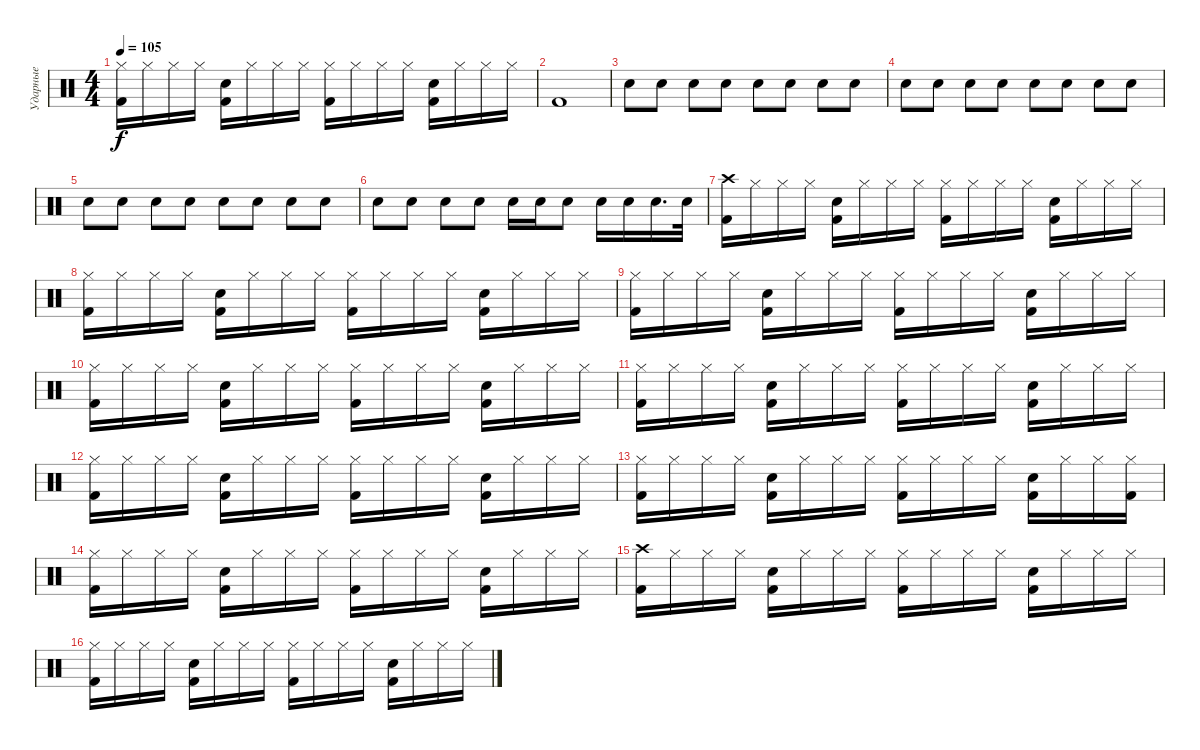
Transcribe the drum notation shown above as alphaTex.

\track ("Ударные" "Ударные") {instrument percussion}
\staff {score}
\articulation defaults
\ts (4 4)
\tempo 105
\clef neutral
\ks c
("Hi-Hat (closed)" "Kick (hit) 2").16{dy f} "Hi-Hat (closed)".16 "Hi-Hat (closed)".16 "Hi-Hat (closed)".16 ("Kick (hit) 2" "Electric Snare (hit)").16 "Hi-Hat (closed)".16 "Hi-Hat (closed)".16 "Hi-Hat (closed)".16 ("Hi-Hat (closed)" "Kick (hit) 2").16 "Hi-Hat (closed)".16 "Hi-Hat (closed)".16 "Hi-Hat (closed)".16 ("Kick (hit) 2" "Electric Snare (hit)").16 "Hi-Hat (closed)".16 "Hi-Hat (closed)".16 "Hi-Hat (closed)".16 |
"Kick (hit) 2".1 |
"Electric Snare (hit)".8{volume 7} "Electric Snare (hit)".8 "Electric Snare (hit)".8 "Electric Snare (hit)".8 "Electric Snare (hit)".8 "Electric Snare (hit)".8 "Electric Snare (hit)".8 "Electric Snare (hit)".8 |
"Electric Snare (hit)".8 "Electric Snare (hit)".8 "Electric Snare (hit)".8 "Electric Snare (hit)".8 "Electric Snare (hit)".8 "Electric Snare (hit)".8 "Electric Snare (hit)".8 "Electric Snare (hit)".8 |
"Electric Snare (hit)".8{volume 9} "Electric Snare (hit)".8 "Electric Snare (hit)".8 "Electric Snare (hit)".8 "Electric Snare (hit)".8{volume 11} "Electric Snare (hit)".8 "Electric Snare (hit)".8 "Electric Snare (hit)".8 |
"Electric Snare (hit)".8{volume 13} "Electric Snare (hit)".8 "Electric Snare (hit)".8 "Electric Snare (hit)".8 "Electric Snare (hit)".16 "Electric Snare (hit)".16 "Electric Snare (hit)".8 "Electric Snare (hit)".16 "Electric Snare (hit)".16 "Electric Snare (hit)".16{d} "Electric Snare (hit)".32 |
("Crash high (hit)" "Kick (hit) 2").16 "Hi-Hat (closed)".16 "Hi-Hat (closed)".16 "Hi-Hat (closed)".16 ("Kick (hit) 2" "Electric Snare (hit)").16 "Hi-Hat (closed)".16 "Hi-Hat (closed)".16 "Hi-Hat (closed)".16 ("Hi-Hat (closed)" "Kick (hit) 2").16 "Hi-Hat (closed)".16 "Hi-Hat (closed)".16 "Hi-Hat (closed)".16 ("Kick (hit) 2" "Electric Snare (hit)").16 "Hi-Hat (closed)".16 "Hi-Hat (closed)".16 "Hi-Hat (closed)".16 |
("Hi-Hat (closed)" "Kick (hit) 2").16 "Hi-Hat (closed)".16 "Hi-Hat (closed)".16 "Hi-Hat (closed)".16 ("Kick (hit) 2" "Electric Snare (hit)").16 "Hi-Hat (closed)".16 "Hi-Hat (closed)".16 "Hi-Hat (closed)".16 ("Hi-Hat (closed)" "Kick (hit) 2").16 "Hi-Hat (closed)".16 "Hi-Hat (closed)".16 "Hi-Hat (closed)".16 ("Kick (hit) 2" "Electric Snare (hit)").16 "Hi-Hat (closed)".16 "Hi-Hat (closed)".16 "Hi-Hat (closed)".16 |
("Hi-Hat (closed)" "Kick (hit) 2").16 "Hi-Hat (closed)".16 "Hi-Hat (closed)".16 "Hi-Hat (closed)".16 ("Kick (hit) 2" "Electric Snare (hit)").16 "Hi-Hat (closed)".16 "Hi-Hat (closed)".16 "Hi-Hat (closed)".16 ("Hi-Hat (closed)" "Kick (hit) 2").16 "Hi-Hat (closed)".16 "Hi-Hat (closed)".16 "Hi-Hat (closed)".16 ("Kick (hit) 2" "Electric Snare (hit)").16 "Hi-Hat (closed)".16 "Hi-Hat (closed)".16 "Hi-Hat (closed)".16 |
("Hi-Hat (closed)" "Kick (hit) 2").16 "Hi-Hat (closed)".16 "Hi-Hat (closed)".16 "Hi-Hat (closed)".16 ("Kick (hit) 2" "Electric Snare (hit)").16 "Hi-Hat (closed)".16 "Hi-Hat (closed)".16 "Hi-Hat (closed)".16 ("Hi-Hat (closed)" "Kick (hit) 2").16 "Hi-Hat (closed)".16 "Hi-Hat (closed)".16 "Hi-Hat (closed)".16 ("Kick (hit) 2" "Electric Snare (hit)").16 "Hi-Hat (closed)".16 "Hi-Hat (closed)".16 "Hi-Hat (closed)".16 |
("Hi-Hat (closed)" "Kick (hit) 2").16 "Hi-Hat (closed)".16 "Hi-Hat (closed)".16 "Hi-Hat (closed)".16 ("Kick (hit) 2" "Electric Snare (hit)").16 "Hi-Hat (closed)".16 "Hi-Hat (closed)".16 "Hi-Hat (closed)".16 ("Hi-Hat (closed)" "Kick (hit) 2").16 "Hi-Hat (closed)".16 "Hi-Hat (closed)".16 "Hi-Hat (closed)".16 ("Kick (hit) 2" "Electric Snare (hit)").16 "Hi-Hat (closed)".16 "Hi-Hat (closed)".16 "Hi-Hat (closed)".16 |
("Hi-Hat (closed)" "Kick (hit) 2").16 "Hi-Hat (closed)".16 "Hi-Hat (closed)".16 "Hi-Hat (closed)".16 ("Kick (hit) 2" "Electric Snare (hit)").16 "Hi-Hat (closed)".16 "Hi-Hat (closed)".16 "Hi-Hat (closed)".16 ("Hi-Hat (closed)" "Kick (hit) 2").16 "Hi-Hat (closed)".16 "Hi-Hat (closed)".16 "Hi-Hat (closed)".16 ("Kick (hit) 2" "Electric Snare (hit)").16 "Hi-Hat (closed)".16 "Hi-Hat (closed)".16 "Hi-Hat (closed)".16 |
("Hi-Hat (closed)" "Kick (hit) 2").16 "Hi-Hat (closed)".16 "Hi-Hat (closed)".16 "Hi-Hat (closed)".16 ("Kick (hit) 2" "Electric Snare (hit)").16 "Hi-Hat (closed)".16 "Hi-Hat (closed)".16 "Hi-Hat (closed)".16 ("Hi-Hat (closed)" "Kick (hit) 2").16 "Hi-Hat (closed)".16 "Hi-Hat (closed)".16 "Hi-Hat (closed)".16 ("Kick (hit) 2" "Electric Snare (hit)").16 "Hi-Hat (closed)".16 "Hi-Hat (closed)".16 ("Hi-Hat (closed)" "Kick (hit) 2").16 |
("Hi-Hat (closed)" "Kick (hit) 2").16 "Hi-Hat (closed)".16 "Hi-Hat (closed)".16 "Hi-Hat (closed)".16 ("Kick (hit) 2" "Electric Snare (hit)").16 "Hi-Hat (closed)".16 "Hi-Hat (closed)".16 "Hi-Hat (closed)".16 ("Hi-Hat (closed)" "Kick (hit) 2").16 "Hi-Hat (closed)".16 "Hi-Hat (closed)".16 "Hi-Hat (closed)".16 ("Kick (hit) 2" "Electric Snare (hit)").16 "Hi-Hat (closed)".16 "Hi-Hat (closed)".16 "Hi-Hat (closed)".16 |
("Crash high (hit)" "Kick (hit) 2").16 "Hi-Hat (closed)".16 "Hi-Hat (closed)".16 "Hi-Hat (closed)".16 ("Kick (hit) 2" "Electric Snare (hit)").16 "Hi-Hat (closed)".16 "Hi-Hat (closed)".16 "Hi-Hat (closed)".16 ("Hi-Hat (closed)" "Kick (hit) 2").16 "Hi-Hat (closed)".16 "Hi-Hat (closed)".16 "Hi-Hat (closed)".16 ("Kick (hit) 2" "Electric Snare (hit)").16 "Hi-Hat (closed)".16 "Hi-Hat (closed)".16 "Hi-Hat (closed)".16 |
("Hi-Hat (closed)" "Kick (hit) 2").16 "Hi-Hat (closed)".16 "Hi-Hat (closed)".16 "Hi-Hat (closed)".16 ("Kick (hit) 2" "Electric Snare (hit)").16 "Hi-Hat (closed)".16 "Hi-Hat (closed)".16 "Hi-Hat (closed)".16 ("Hi-Hat (closed)" "Kick (hit) 2").16 "Hi-Hat (closed)".16 "Hi-Hat (closed)".16 "Hi-Hat (closed)".16 ("Kick (hit) 2" "Electric Snare (hit)").16 "Hi-Hat (closed)".16 "Hi-Hat (closed)".16 "Hi-Hat (closed)".16
